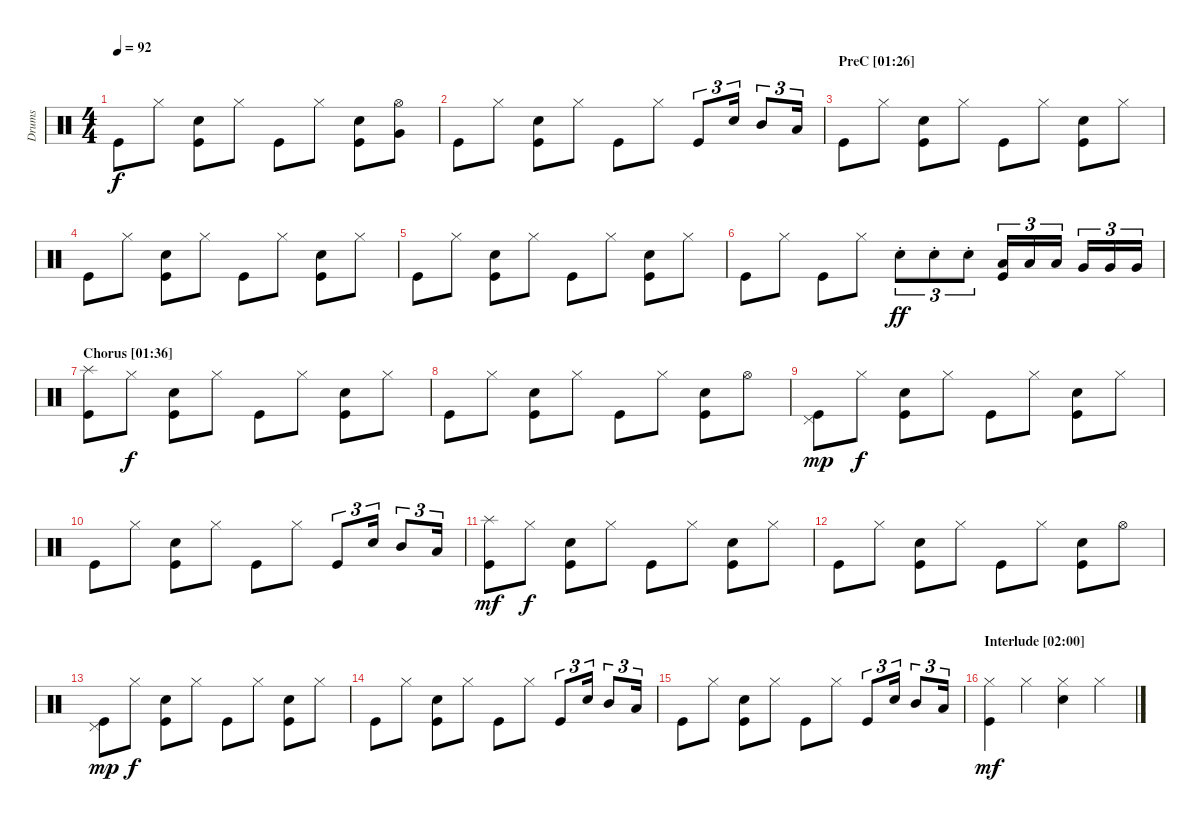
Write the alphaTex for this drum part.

\track ("Drums" "Drums") {instrument percussion}
\staff {score}
\articulation defaults
\ts (4 4)
\tempo 92
\clef neutral
\ks c "Kick (hit)".8{dy f} "Hi-Hat (closed)".8
("Electric Snare (hit)" "Kick (hit)").8 "Hi-Hat (closed)".8 "Kick (hit)".8 "Hi-Hat (closed)".8 ("Electric Snare (hit)" "Kick (hit)").8 ("Hi-Hat (open)" "Very Low Tom (hit)").8 |
"Kick (hit)".8 "Hi-Hat (closed)".8 ("Electric Snare (hit)" "Kick (hit)").8 "Hi-Hat (closed)".8 "Kick (hit)".8 "Hi-Hat (closed)".8 "Kick (hit)".8{tu (3 2)} "Electric Snare (hit)".16{tu (3 2)} "Mid Tom (hit)".8{tu (3 2)} "Low Tom (hit)".16{tu (3 2)} |
\section ("" "PreC [01:26]")
"Kick (hit)".8 "Hi-Hat (closed)".8 ("Electric Snare (hit)" "Kick (hit)").8 "Hi-Hat (closed)".8 "Kick (hit)".8 "Hi-Hat (closed)".8 ("Electric Snare (hit)" "Kick (hit)").8 "Hi-Hat (closed)".8 |
"Kick (hit)".8 "Hi-Hat (closed)".8 ("Electric Snare (hit)" "Kick (hit)").8 "Hi-Hat (closed)".8 "Kick (hit)".8 "Hi-Hat (closed)".8 ("Electric Snare (hit)" "Kick (hit)").8 "Hi-Hat (closed)".8 |
"Kick (hit)".8 "Hi-Hat (closed)".8 ("Electric Snare (hit)" "Kick (hit)").8 "Hi-Hat (closed)".8 "Kick (hit)".8 "Hi-Hat (closed)".8 ("Electric Snare (hit)" "Kick (hit)").8 "Hi-Hat (closed)".8 |
"Kick (hit)".8 "Hi-Hat (closed)".8 "Kick (hit)".8 "Hi-Hat (closed)".8 "Electric Snare (hit)"{st}.8{tu (3 2) dy ff} "Electric Snare (hit)"{st}.8{tu (3 2)} "Electric Snare (hit)"{st}.8{tu (3 2)} ("Low Tom (hit)" "Kick (hit)").16{tu (3 2)} "Low Tom (hit)".16{tu (3 2)} "Low Tom (hit)".16{tu (3 2)} "Very Low Tom (hit)".16{tu (3 2)} "Very Low Tom (hit)".16{tu (3 2)} "Very Low Tom (hit)".16{tu (3 2)} |
\section ("" "Chorus [01:36]")
("Splash (hit)" "Kick (hit)").8 "Hi-Hat (closed)".8{dy f} ("Electric Snare (hit)" "Kick (hit)").8 "Hi-Hat (closed)".8 "Kick (hit)".8 "Hi-Hat (closed)".8 ("Electric Snare (hit)" "Kick (hit)").8 "Hi-Hat (closed)".8 |
"Kick (hit)".8 "Hi-Hat (closed)".8 ("Electric Snare (hit)" "Kick (hit)").8 "Hi-Hat (closed)".8 "Kick (hit)".8 "Hi-Hat (closed)".8 ("Electric Snare (hit)" "Kick (hit)").8 "Hi-Hat (open)".8 |
("Pedal Hi-Hat (hit)" "Kick (hit)").8{dy mp} "Hi-Hat (closed)".8{dy f} ("Electric Snare (hit)" "Kick (hit)").8 "Hi-Hat (closed)".8 "Kick (hit)".8 "Hi-Hat (closed)".8 ("Electric Snare (hit)" "Kick (hit)").8 "Hi-Hat (closed)".8 |
"Kick (hit)".8 "Hi-Hat (closed)".8 ("Electric Snare (hit)" "Kick (hit)").8 "Hi-Hat (closed)".8 "Kick (hit)".8 "Hi-Hat (closed)".8 "Kick (hit)".8{tu (3 2)} "Electric Snare (hit)".16{tu (3 2)} "Mid Tom (hit)".8{tu (3 2)} "Low Tom (hit)".16{tu (3 2)} |
("Splash (hit)" "Kick (hit)").8{dy mf} "Hi-Hat (closed)".8{dy f} ("Electric Snare (hit)" "Kick (hit)").8 "Hi-Hat (closed)".8 "Kick (hit)".8 "Hi-Hat (closed)".8 ("Electric Snare (hit)" "Kick (hit)").8 "Hi-Hat (closed)".8 |
"Kick (hit)".8 "Hi-Hat (closed)".8 ("Electric Snare (hit)" "Kick (hit)").8 "Hi-Hat (closed)".8 "Kick (hit)".8 "Hi-Hat (closed)".8 ("Electric Snare (hit)" "Kick (hit)").8 "Hi-Hat (open)".8 |
("Pedal Hi-Hat (hit)" "Kick (hit)").8{dy mp} "Hi-Hat (closed)".8{dy f} ("Electric Snare (hit)" "Kick (hit)").8 "Hi-Hat (closed)".8 "Kick (hit)".8 "Hi-Hat (closed)".8 ("Electric Snare (hit)" "Kick (hit)").8 "Hi-Hat (closed)".8 |
\section ("" "")
"Kick (hit)".8 "Hi-Hat (closed)".8 ("Electric Snare (hit)" "Kick (hit)").8 "Hi-Hat (closed)".8 "Kick (hit)".8 "Hi-Hat (closed)".8 "Kick (hit)".8{tu (3 2)} "Electric Snare (hit)".16{tu (3 2)} "Mid Tom (hit)".8{tu (3 2)} "Low Tom (hit)".16{tu (3 2)} |
"Kick (hit)".8 "Hi-Hat (closed)".8 ("Electric Snare (hit)" "Kick (hit)").8 "Hi-Hat (closed)".8 "Kick (hit)".8 "Hi-Hat (closed)".8 "Kick (hit)".8{tu (3 2)} "Electric Snare (hit)".16{tu (3 2)} "Mid Tom (hit)".8{tu (3 2)} "Low Tom (hit)".16{tu (3 2)} |
\section ("" "Interlude [02:00]")
("Hi-Hat (closed)" "Kick (hit)").4{dy mf} "Hi-Hat (closed)".4 ("Hi-Hat (closed)" "Electric Snare (hit)").4 "Hi-Hat (closed)".4
